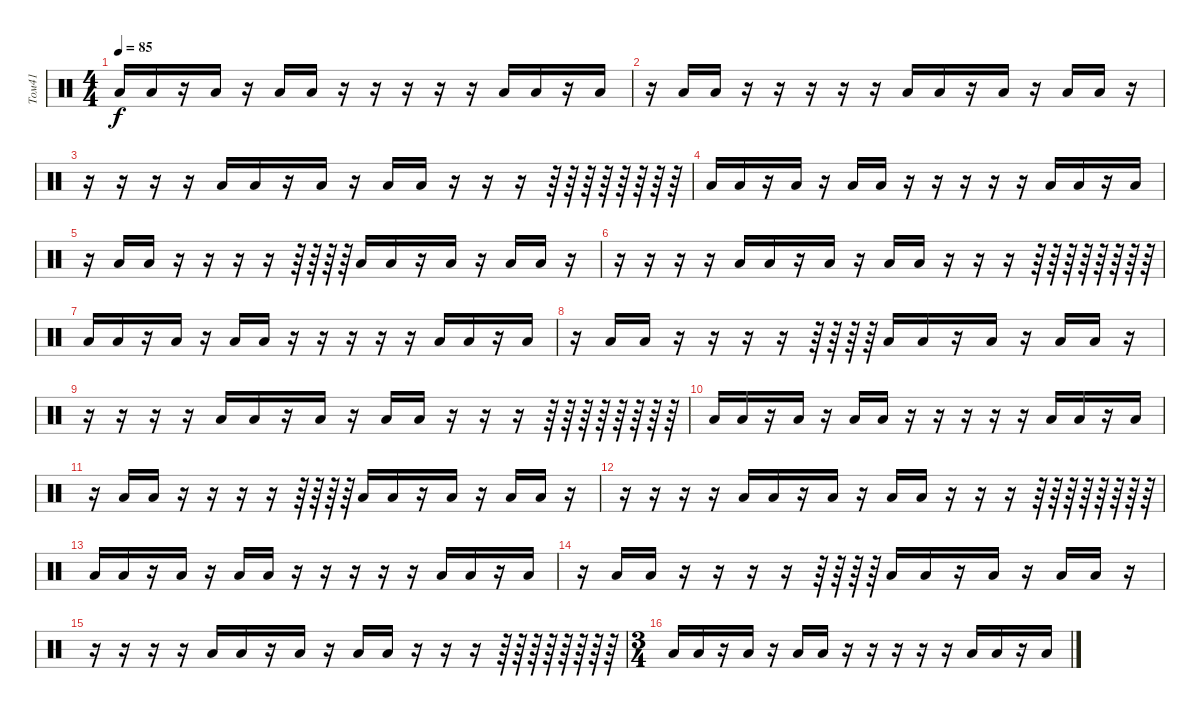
\track ("Том41" "Том41") {instrument percussion}
\staff {score}
\articulation defaults
\ts (4 4)
\tempo 85
\clef neutral
\ks c "Low Floor Tom (hit)".16{dy f} "Low Floor Tom (hit)".16
r.16 "Low Floor Tom (hit)".16 r.16 "Low Floor Tom (hit)".16 "Low Floor Tom (hit)".16 r.16 r.16 r.16 r.16 r.16 "Low Floor Tom (hit)".16 "Low Floor Tom (hit)".16 r.16 "Low Floor Tom (hit)".16 |
r.16 "Low Floor Tom (hit)".16 "Low Floor Tom (hit)".16 r.16 r.16 r.16 r.16 r.16 "Low Floor Tom (hit)".16 "Low Floor Tom (hit)".16 r.16 "Low Floor Tom (hit)".16 r.16 "Low Floor Tom (hit)".16 "Low Floor Tom (hit)".16 r.16 |
r.16 r.16 r.16 r.16 "Low Floor Tom (hit)".16 "Low Floor Tom (hit)".16 r.16 "Low Floor Tom (hit)".16 r.16 "Low Floor Tom (hit)".16 "Low Floor Tom (hit)".16 r.16 r.16 r.16 r.64 r.64 r.64 r.64 r.64 r.64 r.64 r.64 |
"Low Floor Tom (hit)".16 "Low Floor Tom (hit)".16 r.16 "Low Floor Tom (hit)".16 r.16 "Low Floor Tom (hit)".16 "Low Floor Tom (hit)".16 r.16 r.16 r.16 r.16 r.16 "Low Floor Tom (hit)".16 "Low Floor Tom (hit)".16 r.16 "Low Floor Tom (hit)".16 |
r.16 "Low Floor Tom (hit)".16 "Low Floor Tom (hit)".16 r.16 r.16 r.16 r.16 r.64 r.64 r.64 r.64 "Low Floor Tom (hit)".16 "Low Floor Tom (hit)".16 r.16 "Low Floor Tom (hit)".16 r.16 "Low Floor Tom (hit)".16 "Low Floor Tom (hit)".16 r.16 |
r.16 r.16 r.16 r.16 "Low Floor Tom (hit)".16 "Low Floor Tom (hit)".16 r.16 "Low Floor Tom (hit)".16 r.16 "Low Floor Tom (hit)".16 "Low Floor Tom (hit)".16 r.16 r.16 r.16 r.64 r.64 r.64 r.64 r.64 r.64 r.64 r.64 |
"Low Floor Tom (hit)".16 "Low Floor Tom (hit)".16 r.16 "Low Floor Tom (hit)".16 r.16 "Low Floor Tom (hit)".16 "Low Floor Tom (hit)".16 r.16 r.16 r.16 r.16 r.16 "Low Floor Tom (hit)".16 "Low Floor Tom (hit)".16 r.16 "Low Floor Tom (hit)".16 |
r.16 "Low Floor Tom (hit)".16 "Low Floor Tom (hit)".16 r.16 r.16 r.16 r.16 r.64 r.64 r.64 r.64 "Low Floor Tom (hit)".16 "Low Floor Tom (hit)".16 r.16 "Low Floor Tom (hit)".16 r.16 "Low Floor Tom (hit)".16 "Low Floor Tom (hit)".16 r.16 |
r.16 r.16 r.16 r.16 "Low Floor Tom (hit)".16 "Low Floor Tom (hit)".16 r.16 "Low Floor Tom (hit)".16 r.16 "Low Floor Tom (hit)".16 "Low Floor Tom (hit)".16 r.16 r.16 r.16 r.64 r.64 r.64 r.64 r.64 r.64 r.64 r.64 |
"Low Floor Tom (hit)".16 "Low Floor Tom (hit)".16 r.16 "Low Floor Tom (hit)".16 r.16 "Low Floor Tom (hit)".16 "Low Floor Tom (hit)".16 r.16 r.16 r.16 r.16 r.16 "Low Floor Tom (hit)".16 "Low Floor Tom (hit)".16 r.16 "Low Floor Tom (hit)".16 |
r.16 "Low Floor Tom (hit)".16 "Low Floor Tom (hit)".16 r.16 r.16 r.16 r.16 r.64 r.64 r.64 r.64 "Low Floor Tom (hit)".16 "Low Floor Tom (hit)".16 r.16 "Low Floor Tom (hit)".16 r.16 "Low Floor Tom (hit)".16 "Low Floor Tom (hit)".16 r.16 |
r.16 r.16 r.16 r.16 "Low Floor Tom (hit)".16 "Low Floor Tom (hit)".16 r.16 "Low Floor Tom (hit)".16 r.16 "Low Floor Tom (hit)".16 "Low Floor Tom (hit)".16 r.16 r.16 r.16 r.64 r.64 r.64 r.64 r.64 r.64 r.64 r.64 |
"Low Floor Tom (hit)".16 "Low Floor Tom (hit)".16 r.16 "Low Floor Tom (hit)".16 r.16 "Low Floor Tom (hit)".16 "Low Floor Tom (hit)".16 r.16 r.16 r.16 r.16 r.16 "Low Floor Tom (hit)".16 "Low Floor Tom (hit)".16 r.16 "Low Floor Tom (hit)".16 |
r.16 "Low Floor Tom (hit)".16 "Low Floor Tom (hit)".16 r.16 r.16 r.16 r.16 r.64 r.64 r.64 r.64 "Low Floor Tom (hit)".16 "Low Floor Tom (hit)".16 r.16 "Low Floor Tom (hit)".16 r.16 "Low Floor Tom (hit)".16 "Low Floor Tom (hit)".16 r.16 |
r.16 r.16 r.16 r.16 "Low Floor Tom (hit)".16 "Low Floor Tom (hit)".16 r.16 "Low Floor Tom (hit)".16 r.16 "Low Floor Tom (hit)".16 "Low Floor Tom (hit)".16 r.16 r.16 r.16 r.64 r.64 r.64 r.64 r.64 r.64 r.64 r.64 |
\ts (3 4)
"Low Floor Tom (hit)".16 "Low Floor Tom (hit)".16 r.16 "Low Floor Tom (hit)".16 r.16 "Low Floor Tom (hit)".16 "Low Floor Tom (hit)".16 r.16 r.16 r.16 r.16 r.16 "Low Floor Tom (hit)".16 "Low Floor Tom (hit)".16 r.16 "Low Floor Tom (hit)".16
